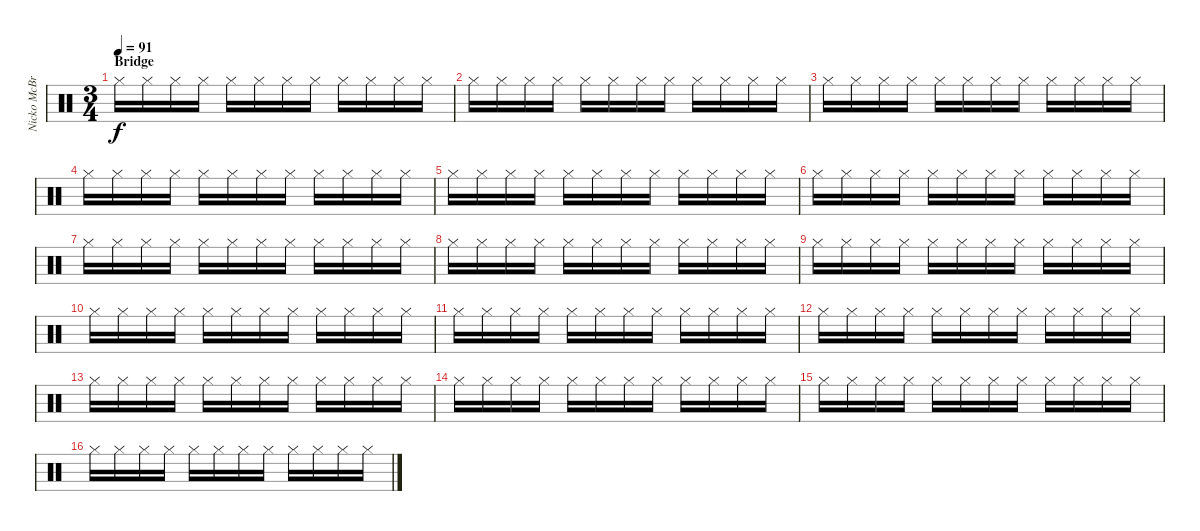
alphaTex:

\track ("Nicko McBrain" "Nicko McBr") {instrument percussion}
\staff {score}
\articulation defaults
\ts (3 4)
\section ("" "Bridge")
\tempo 91
\clef neutral
\ks c "Hi-Hat (closed)".16{dy f volume 8} "Hi-Hat (closed)".16 "Hi-Hat (closed)".16 "Hi-Hat (closed)".16 "Hi-Hat (closed)".16 "Hi-Hat (closed)".16 "Hi-Hat (closed)".16 "Hi-Hat (closed)".16 "Hi-Hat (closed)".16 "Hi-Hat (closed)".16 "Hi-Hat (closed)".16 "Hi-Hat (closed)".16
|
"Hi-Hat (closed)".16 "Hi-Hat (closed)".16 "Hi-Hat (closed)".16 "Hi-Hat (closed)".16 "Hi-Hat (closed)".16 "Hi-Hat (closed)".16 "Hi-Hat (closed)".16 "Hi-Hat (closed)".16 "Hi-Hat (closed)".16 "Hi-Hat (closed)".16 "Hi-Hat (closed)".16 "Hi-Hat (closed)".16 |
"Hi-Hat (closed)".16 "Hi-Hat (closed)".16 "Hi-Hat (closed)".16 "Hi-Hat (closed)".16 "Hi-Hat (closed)".16 "Hi-Hat (closed)".16 "Hi-Hat (closed)".16 "Hi-Hat (closed)".16 "Hi-Hat (closed)".16 "Hi-Hat (closed)".16 "Hi-Hat (closed)".16 "Hi-Hat (closed)".16 |
"Hi-Hat (closed)".16 "Hi-Hat (closed)".16 "Hi-Hat (closed)".16 "Hi-Hat (closed)".16 "Hi-Hat (closed)".16 "Hi-Hat (closed)".16 "Hi-Hat (closed)".16 "Hi-Hat (closed)".16 "Hi-Hat (closed)".16 "Hi-Hat (closed)".16 "Hi-Hat (closed)".16 "Hi-Hat (closed)".16 |
"Hi-Hat (closed)".16 "Hi-Hat (closed)".16 "Hi-Hat (closed)".16 "Hi-Hat (closed)".16 "Hi-Hat (closed)".16 "Hi-Hat (closed)".16 "Hi-Hat (closed)".16 "Hi-Hat (closed)".16 "Hi-Hat (closed)".16 "Hi-Hat (closed)".16 "Hi-Hat (closed)".16 "Hi-Hat (closed)".16 |
"Hi-Hat (closed)".16 "Hi-Hat (closed)".16 "Hi-Hat (closed)".16 "Hi-Hat (closed)".16 "Hi-Hat (closed)".16 "Hi-Hat (closed)".16 "Hi-Hat (closed)".16 "Hi-Hat (closed)".16 "Hi-Hat (closed)".16 "Hi-Hat (closed)".16 "Hi-Hat (closed)".16 "Hi-Hat (closed)".16 |
"Hi-Hat (closed)".16 "Hi-Hat (closed)".16 "Hi-Hat (closed)".16 "Hi-Hat (closed)".16 "Hi-Hat (closed)".16 "Hi-Hat (closed)".16 "Hi-Hat (closed)".16 "Hi-Hat (closed)".16 "Hi-Hat (closed)".16 "Hi-Hat (closed)".16 "Hi-Hat (closed)".16 "Hi-Hat (closed)".16 |
"Hi-Hat (closed)".16 "Hi-Hat (closed)".16 "Hi-Hat (closed)".16 "Hi-Hat (closed)".16 "Hi-Hat (closed)".16 "Hi-Hat (closed)".16 "Hi-Hat (closed)".16 "Hi-Hat (closed)".16 "Hi-Hat (closed)".16 "Hi-Hat (closed)".16 "Hi-Hat (closed)".16 "Hi-Hat (closed)".16 |
"Hi-Hat (closed)".16 "Hi-Hat (closed)".16 "Hi-Hat (closed)".16 "Hi-Hat (closed)".16 "Hi-Hat (closed)".16 "Hi-Hat (closed)".16 "Hi-Hat (closed)".16 "Hi-Hat (closed)".16 "Hi-Hat (closed)".16 "Hi-Hat (closed)".16 "Hi-Hat (closed)".16 "Hi-Hat (closed)".16 |
"Hi-Hat (closed)".16 "Hi-Hat (closed)".16 "Hi-Hat (closed)".16 "Hi-Hat (closed)".16 "Hi-Hat (closed)".16 "Hi-Hat (closed)".16 "Hi-Hat (closed)".16 "Hi-Hat (closed)".16 "Hi-Hat (closed)".16 "Hi-Hat (closed)".16 "Hi-Hat (closed)".16 "Hi-Hat (closed)".16 |
"Hi-Hat (closed)".16 "Hi-Hat (closed)".16 "Hi-Hat (closed)".16 "Hi-Hat (closed)".16 "Hi-Hat (closed)".16 "Hi-Hat (closed)".16 "Hi-Hat (closed)".16 "Hi-Hat (closed)".16 "Hi-Hat (closed)".16 "Hi-Hat (closed)".16 "Hi-Hat (closed)".16 "Hi-Hat (closed)".16 |
"Hi-Hat (closed)".16 "Hi-Hat (closed)".16 "Hi-Hat (closed)".16 "Hi-Hat (closed)".16 "Hi-Hat (closed)".16 "Hi-Hat (closed)".16 "Hi-Hat (closed)".16 "Hi-Hat (closed)".16 "Hi-Hat (closed)".16 "Hi-Hat (closed)".16 "Hi-Hat (closed)".16 "Hi-Hat (closed)".16 |
"Hi-Hat (closed)".16 "Hi-Hat (closed)".16 "Hi-Hat (closed)".16 "Hi-Hat (closed)".16 "Hi-Hat (closed)".16 "Hi-Hat (closed)".16 "Hi-Hat (closed)".16 "Hi-Hat (closed)".16 "Hi-Hat (closed)".16 "Hi-Hat (closed)".16 "Hi-Hat (closed)".16 "Hi-Hat (closed)".16 |
"Hi-Hat (closed)".16 "Hi-Hat (closed)".16 "Hi-Hat (closed)".16 "Hi-Hat (closed)".16 "Hi-Hat (closed)".16 "Hi-Hat (closed)".16 "Hi-Hat (closed)".16 "Hi-Hat (closed)".16 "Hi-Hat (closed)".16 "Hi-Hat (closed)".16 "Hi-Hat (closed)".16 "Hi-Hat (closed)".16 |
"Hi-Hat (closed)".16 "Hi-Hat (closed)".16 "Hi-Hat (closed)".16 "Hi-Hat (closed)".16 "Hi-Hat (closed)".16 "Hi-Hat (closed)".16 "Hi-Hat (closed)".16 "Hi-Hat (closed)".16 "Hi-Hat (closed)".16 "Hi-Hat (closed)".16 "Hi-Hat (closed)".16 "Hi-Hat (closed)".16 |
"Hi-Hat (closed)".16 "Hi-Hat (closed)".16 "Hi-Hat (closed)".16 "Hi-Hat (closed)".16 "Hi-Hat (closed)".16 "Hi-Hat (closed)".16 "Hi-Hat (closed)".16 "Hi-Hat (closed)".16 "Hi-Hat (closed)".16 "Hi-Hat (closed)".16 "Hi-Hat (closed)".16 "Hi-Hat (closed)".16
